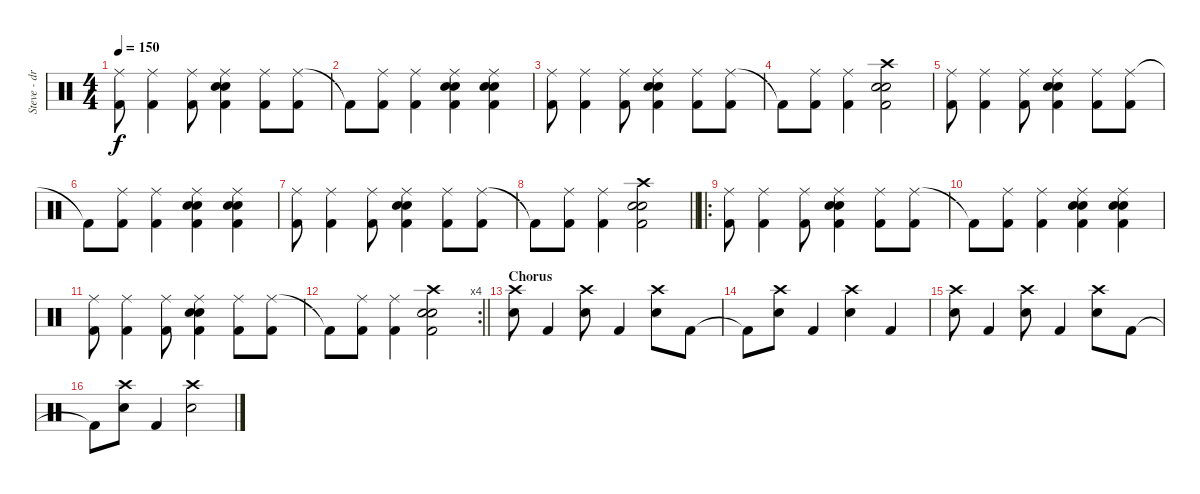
\track ("Steve - drums" "Steve - dr") {instrument percussion}
\staff {score}
\articulation defaults
\ts (4 4)
\tempo 150
\clef neutral
\ks c
("Ride (middle)" "Kick (hit) 2").8{dy f} ("Ride (middle)" "Kick (hit) 2").4 ("Ride (middle)" "Kick (hit) 2").8 ("Electric Snare (hit)" "Ride (middle)" "Kick (hit) 2" "Snare (hit) 2").4 ("Ride (middle)" "Kick (hit) 2").8 ("Ride (middle)" "Kick (hit) 2").8 |
"Kick (hit) 2"{t}.8 ("Ride (middle)" "Kick (hit) 2").8 ("Ride (middle)" "Kick (hit) 2").4 ("Electric Snare (hit)" "Ride (middle)" "Kick (hit) 2" "Snare (hit) 2").4 ("Electric Snare (hit)" "Ride (middle)" "Kick (hit) 2" "Snare (hit) 2").4 |
("Ride (middle)" "Kick (hit) 2").8 ("Ride (middle)" "Kick (hit) 2").4 ("Ride (middle)" "Kick (hit) 2").8 ("Electric Snare (hit)" "Ride (middle)" "Kick (hit) 2" "Snare (hit) 2").4 ("Ride (middle)" "Kick (hit) 2").8 ("Ride (middle)" "Kick (hit) 2").8 |
"Kick (hit) 2"{t}.8 ("Ride (middle)" "Kick (hit) 2").8 ("Ride (middle)" "Kick (hit) 2").4 ("Electric Snare (hit)" "Crash high (hit)" "Kick (hit) 2" "Snare (hit) 2").2 |
("Ride (middle)" "Kick (hit) 2").8 ("Ride (middle)" "Kick (hit) 2").4 ("Ride (middle)" "Kick (hit) 2").8 ("Electric Snare (hit)" "Ride (middle)" "Kick (hit) 2" "Snare (hit) 2").4 ("Ride (middle)" "Kick (hit) 2").8 ("Ride (middle)" "Kick (hit) 2").8 |
"Kick (hit) 2"{t}.8 ("Ride (middle)" "Kick (hit) 2").8 ("Ride (middle)" "Kick (hit) 2").4 ("Electric Snare (hit)" "Ride (middle)" "Kick (hit) 2" "Snare (hit) 2").4 ("Electric Snare (hit)" "Ride (middle)" "Kick (hit) 2" "Snare (hit) 2").4 |
("Ride (middle)" "Kick (hit) 2").8 ("Ride (middle)" "Kick (hit) 2").4 ("Ride (middle)" "Kick (hit) 2").8 ("Electric Snare (hit)" "Ride (middle)" "Kick (hit) 2" "Snare (hit) 2").4 ("Ride (middle)" "Kick (hit) 2").8 ("Ride (middle)" "Kick (hit) 2").8 |
\barLineRight lightlight "Kick (hit) 2"{t}.8
("Ride (middle)" "Kick (hit) 2").8 ("Ride (middle)" "Kick (hit) 2").4 ("Electric Snare (hit)" "Crash high (hit)" "Kick (hit) 2" "Snare (hit) 2").2 |
\ro
("Ride (middle)" "Kick (hit) 2").8 ("Ride (middle)" "Kick (hit) 2").4 ("Ride (middle)" "Kick (hit) 2").8 ("Electric Snare (hit)" "Ride (middle)" "Kick (hit) 2" "Snare (hit) 2").4 ("Ride (middle)" "Kick (hit) 2").8 ("Ride (middle)" "Kick (hit) 2").8 |
"Kick (hit) 2"{t}.8 ("Ride (middle)" "Kick (hit) 2").8 ("Ride (middle)" "Kick (hit) 2").4 ("Electric Snare (hit)" "Ride (middle)" "Kick (hit) 2" "Snare (hit) 2").4 ("Electric Snare (hit)" "Ride (middle)" "Kick (hit) 2" "Snare (hit) 2").4 |
("Ride (middle)" "Kick (hit) 2").8 ("Ride (middle)" "Kick (hit) 2").4 ("Ride (middle)" "Kick (hit) 2").8 ("Electric Snare (hit)" "Ride (middle)" "Kick (hit) 2" "Snare (hit) 2").4 ("Ride (middle)" "Kick (hit) 2").8 ("Ride (middle)" "Kick (hit) 2").8 |
\rc 4
\barLineRight lightlight "Kick (hit) 2"{t}.8
("Ride (middle)" "Kick (hit) 2").8 ("Ride (middle)" "Kick (hit) 2").4 ("Electric Snare (hit)" "Crash high (hit)" "Kick (hit) 2" "Snare (hit) 2").2 |
\section ("" "Chorus")
("Crash high (hit)" "Snare (hit) 2").8 "Kick (hit) 2".4 ("Crash high (hit)" "Snare (hit) 2").8 "Kick (hit) 2".4 ("Crash high (hit)" "Snare (hit) 2").8 "Kick (hit) 2".8 |
"Kick (hit) 2"{t}.8 ("Crash high (hit)" "Snare (hit) 2").8 "Kick (hit) 2".4 ("Crash high (hit)" "Snare (hit) 2").4 "Kick (hit) 2".4 |
("Crash high (hit)" "Snare (hit) 2").8 "Kick (hit) 2".4 ("Crash high (hit)" "Snare (hit) 2").8 "Kick (hit) 2".4 ("Crash high (hit)" "Snare (hit) 2").8 "Kick (hit) 2".8 |
"Kick (hit) 2"{t}.8 ("Crash high (hit)" "Snare (hit) 2").8 "Kick (hit) 2".4 ("Crash high (hit)" "Snare (hit) 2").2
